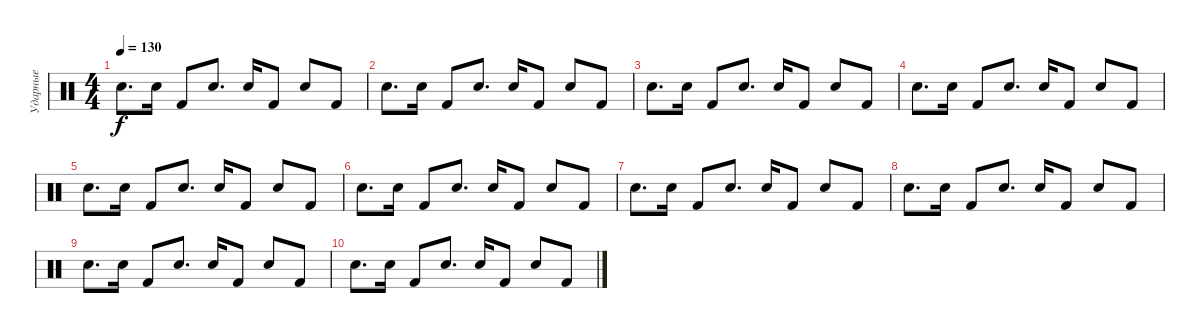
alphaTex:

\track ("Ударные" "Ударные") {instrument percussion}
\staff {score}
\articulation defaults
\ts (4 4)
\tempo 130
\clef neutral
\ks c "Snare (hit) 2".8{d dy f} "Hand Clap (hit)".16 "Kick (hit) 2".8 "Snare (hit) 2".8{d} "Hand Clap (hit)".16 "Kick (hit) 2".8 "Snare (hit) 2".8 "Kick (hit) 2".8
|
"Snare (hit) 2".8{d} "Hand Clap (hit)".16 "Kick (hit) 2".8 "Snare (hit) 2".8{d} "Hand Clap (hit)".16 "Kick (hit) 2".8 "Snare (hit) 2".8 "Kick (hit) 2".8 |
"Snare (hit) 2".8{d} "Hand Clap (hit)".16 "Kick (hit) 2".8 "Snare (hit) 2".8{d} "Hand Clap (hit)".16 "Kick (hit) 2".8 "Snare (hit) 2".8 "Kick (hit) 2".8 |
"Snare (hit) 2".8{d} "Hand Clap (hit)".16 "Kick (hit) 2".8 "Snare (hit) 2".8{d} "Hand Clap (hit)".16 "Kick (hit) 2".8 "Snare (hit) 2".8 "Kick (hit) 2".8 |
"Snare (hit) 2".8{d} "Hand Clap (hit)".16 "Kick (hit) 2".8 "Snare (hit) 2".8{d} "Hand Clap (hit)".16 "Kick (hit) 2".8 "Snare (hit) 2".8 "Kick (hit) 2".8 |
"Snare (hit) 2".8{d} "Hand Clap (hit)".16 "Kick (hit) 2".8 "Snare (hit) 2".8{d} "Hand Clap (hit)".16 "Kick (hit) 2".8 "Snare (hit) 2".8 "Kick (hit) 2".8 |
"Snare (hit) 2".8{d} "Hand Clap (hit)".16 "Kick (hit) 2".8 "Snare (hit) 2".8{d} "Hand Clap (hit)".16 "Kick (hit) 2".8 "Snare (hit) 2".8 "Kick (hit) 2".8 |
"Snare (hit) 2".8{d} "Hand Clap (hit)".16 "Kick (hit) 2".8 "Snare (hit) 2".8{d} "Hand Clap (hit)".16 "Kick (hit) 2".8 "Snare (hit) 2".8 "Kick (hit) 2".8 |
"Snare (hit) 2".8{d} "Hand Clap (hit)".16 "Kick (hit) 2".8 "Snare (hit) 2".8{d} "Hand Clap (hit)".16 "Kick (hit) 2".8 "Snare (hit) 2".8 "Kick (hit) 2".8 |
"Snare (hit) 2".8{d} "Hand Clap (hit)".16 "Kick (hit) 2".8 "Snare (hit) 2".8{d} "Hand Clap (hit)".16 "Kick (hit) 2".8 "Snare (hit) 2".8 "Kick (hit) 2".8
